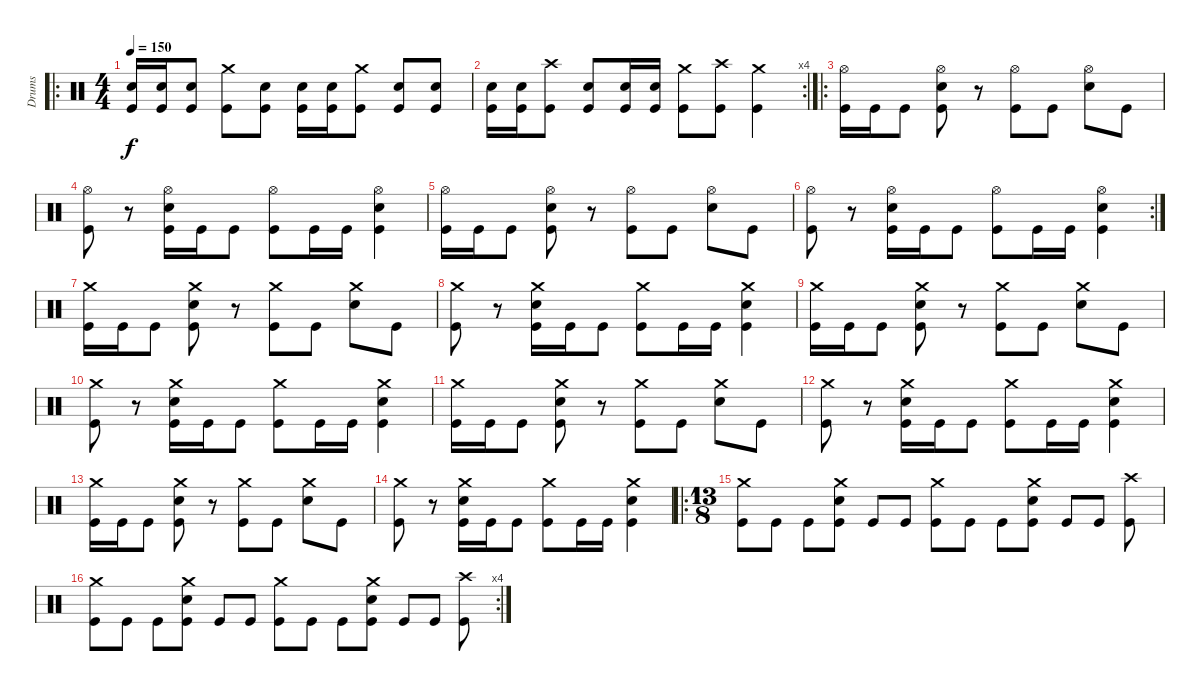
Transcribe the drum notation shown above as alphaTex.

\track ("Drums" "Drums") {instrument percussion}
\staff {score}
\articulation defaults
\ro
\ts (4 4)
\tempo 150
\clef neutral
\ks c
("Snare (hit) 2" "Kick (hit)").16{dy f} ("Snare (hit) 2" "Kick (hit)").16 ("Snare (hit) 2" "Kick (hit)").8 ("Crash medium (hit)" "Kick (hit)").8 ("Snare (hit) 2" "Kick (hit)").8 ("Snare (hit) 2" "Kick (hit)").16 ("Snare (hit) 2" "Kick (hit)").16 ("Crash medium (hit)" "Kick (hit)").8 ("Snare (hit) 2" "Kick (hit)").8 ("Snare (hit) 2" "Kick (hit)").8 |
\rc 4
("Snare (hit) 2" "Kick (hit)").16 ("Snare (hit) 2" "Kick (hit)").16 ("Crash high (hit)" "Kick (hit)").8 ("Snare (hit) 2" "Kick (hit)").8 ("Snare (hit) 2" "Kick (hit)").16 ("Snare (hit) 2" "Kick (hit)").16 ("Crash medium (hit)" "Kick (hit)").8 ("Crash high (hit)" "Kick (hit)").8 ("Crash medium (hit)" "Kick (hit)").4 |
\ro
("Hi-Hat (open)" "Kick (hit)").16 "Kick (hit)".16 "Kick (hit)".8 ("Hi-Hat (open)" "Snare (hit) 2" "Kick (hit)").8 r.8 ("Hi-Hat (open)" "Kick (hit)").8 "Kick (hit)".8 ("Hi-Hat (open)" "Snare (hit) 2").8 "Kick (hit)".8 |
("Hi-Hat (open)" "Kick (hit)").8 r.8 ("Hi-Hat (open)" "Snare (hit) 2" "Kick (hit)").16 "Kick (hit)".16 "Kick (hit)".8 ("Hi-Hat (open)" "Kick (hit)").8 "Kick (hit)".16 "Kick (hit)".16 ("Hi-Hat (open)" "Snare (hit) 2" "Kick (hit)").4 |
("Hi-Hat (open)" "Kick (hit)").16 "Kick (hit)".16 "Kick (hit)".8 ("Hi-Hat (open)" "Snare (hit) 2" "Kick (hit)").8 r.8 ("Hi-Hat (open)" "Kick (hit)").8 "Kick (hit)".8 ("Hi-Hat (open)" "Snare (hit) 2").8 "Kick (hit)".8 |
\rc 2
("Hi-Hat (open)" "Kick (hit)").8 r.8 ("Hi-Hat (open)" "Snare (hit) 2" "Kick (hit)").16 "Kick (hit)".16 "Kick (hit)".8 ("Hi-Hat (open)" "Kick (hit)").8 "Kick (hit)".16 "Kick (hit)".16 ("Hi-Hat (open)" "Snare (hit) 2" "Kick (hit)").4 |
("Crash medium (hit)" "Kick (hit)").16 "Kick (hit)".16 "Kick (hit)".8 ("Crash medium (hit)" "Snare (hit) 2" "Kick (hit)").8 r.8 ("Crash medium (hit)" "Kick (hit)").8 "Kick (hit)".8 ("Crash medium (hit)" "Snare (hit) 2").8 "Kick (hit)".8 |
("Crash medium (hit)" "Kick (hit)").8 r.8 ("Crash medium (hit)" "Snare (hit) 2" "Kick (hit)").16 "Kick (hit)".16 "Kick (hit)".8 ("Crash medium (hit)" "Kick (hit)").8 "Kick (hit)".16 "Kick (hit)".16 ("Crash medium (hit)" "Snare (hit) 2" "Kick (hit)").4 |
("Crash medium (hit)" "Kick (hit)").16 "Kick (hit)".16 "Kick (hit)".8 ("Crash medium (hit)" "Snare (hit) 2" "Kick (hit)").8 r.8 ("Crash medium (hit)" "Kick (hit)").8 "Kick (hit)".8 ("Crash medium (hit)" "Snare (hit) 2").8 "Kick (hit)".8 |
("Crash medium (hit)" "Kick (hit)").8 r.8 ("Crash medium (hit)" "Snare (hit) 2" "Kick (hit)").16 "Kick (hit)".16 "Kick (hit)".8 ("Crash medium (hit)" "Kick (hit)").8 "Kick (hit)".16 "Kick (hit)".16 ("Crash medium (hit)" "Snare (hit) 2" "Kick (hit)").4 |
("Crash medium (hit)" "Kick (hit)").16 "Kick (hit)".16 "Kick (hit)".8 ("Crash medium (hit)" "Snare (hit) 2" "Kick (hit)").8 r.8 ("Crash medium (hit)" "Kick (hit)").8 "Kick (hit)".8 ("Crash medium (hit)" "Snare (hit) 2").8 "Kick (hit)".8 |
("Crash medium (hit)" "Kick (hit)").8 r.8 ("Crash medium (hit)" "Snare (hit) 2" "Kick (hit)").16 "Kick (hit)".16 "Kick (hit)".8 ("Crash medium (hit)" "Kick (hit)").8 "Kick (hit)".16 "Kick (hit)".16 ("Crash medium (hit)" "Snare (hit) 2" "Kick (hit)").4 |
("Crash medium (hit)" "Kick (hit)").16 "Kick (hit)".16 "Kick (hit)".8 ("Crash medium (hit)" "Snare (hit) 2" "Kick (hit)").8 r.8 ("Crash medium (hit)" "Kick (hit)").8 "Kick (hit)".8 ("Crash medium (hit)" "Snare (hit) 2").8 "Kick (hit)".8 |
("Crash medium (hit)" "Kick (hit)").8 r.8 ("Crash medium (hit)" "Snare (hit) 2" "Kick (hit)").16 "Kick (hit)".16 "Kick (hit)".8 ("Crash medium (hit)" "Kick (hit)").8 "Kick (hit)".16 "Kick (hit)".16 ("Crash medium (hit)" "Snare (hit) 2" "Kick (hit)").4 |
\ro
\ts (13 8)
("Crash medium (hit)" "Kick (hit)").8 "Kick (hit)".8 "Kick (hit)".8 ("Crash medium (hit)" "Snare (hit) 2" "Kick (hit)").8 "Kick (hit)".8 "Kick (hit)".8 ("Crash medium (hit)" "Kick (hit)").8 "Kick (hit)".8 "Kick (hit)".8 ("Crash medium (hit)" "Snare (hit) 2" "Kick (hit)").8 "Kick (hit)".8 "Kick (hit)".8 ("Crash high (hit)" "Kick (hit)").8 |
\rc 4
("Crash medium (hit)" "Kick (hit)").8 "Kick (hit)".8 "Kick (hit)".8 ("Crash medium (hit)" "Snare (hit) 2" "Kick (hit)").8 "Kick (hit)".8 "Kick (hit)".8 ("Crash medium (hit)" "Kick (hit)").8 "Kick (hit)".8 "Kick (hit)".8 ("Crash medium (hit)" "Snare (hit) 2" "Kick (hit)").8 "Kick (hit)".8 "Kick (hit)".8 ("Crash high (hit)" "Kick (hit)").8
